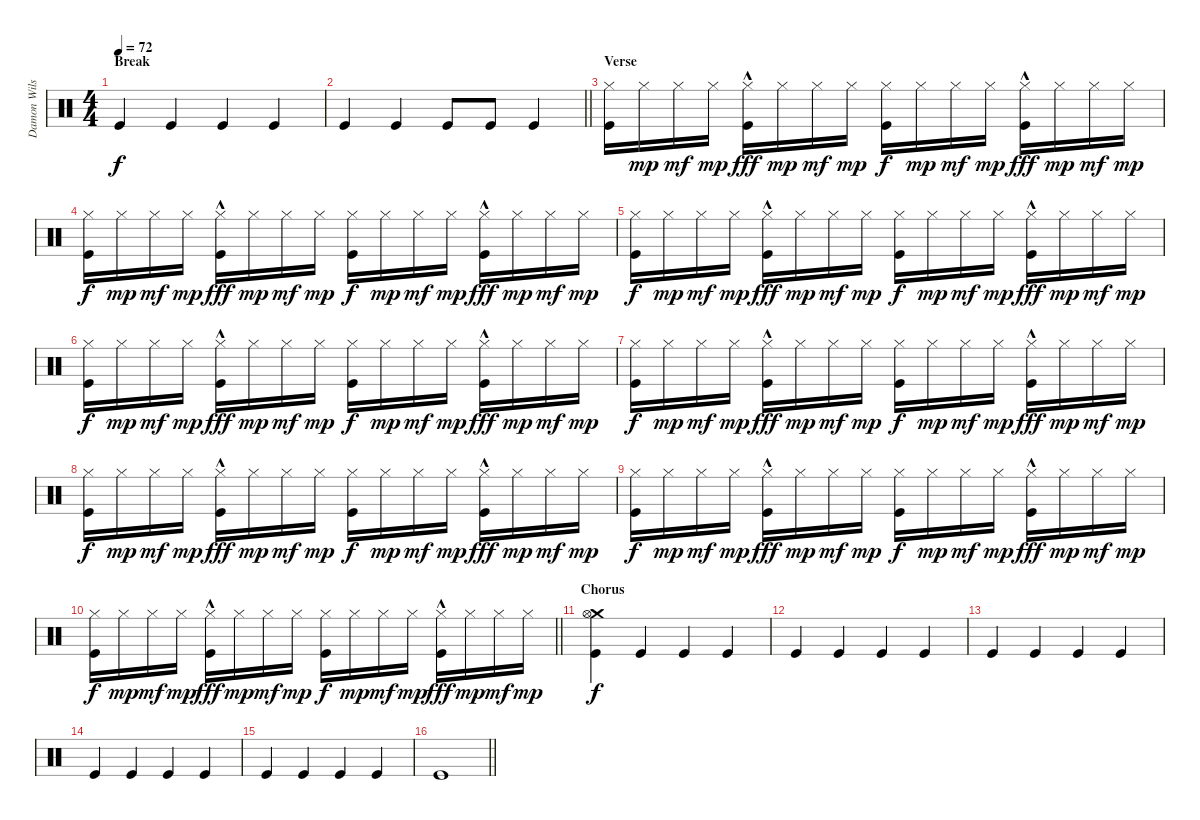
\track ("Damon Wilson" "Damon Wils") {instrument percussion}
\staff {score}
\articulation defaults
\ts (4 4)
\section ("" "Break")
\tempo 72
\clef neutral
\ks c "Kick (hit)".4{dy f} "Kick (hit)".4 "Kick (hit)".4 "Kick (hit)".4
|
\barLineRight lightlight "Kick (hit)".4 "Kick (hit)".4 "Kick (hit)".8 "Kick (hit)".8 "Kick (hit)".4
|
\section ("" "Verse")
("Hi-Hat (closed)" "Kick (hit)").16 "Hi-Hat (closed)".16{dy mp} "Hi-Hat (closed)".16{dy mf} "Hi-Hat (closed)".16{dy mp} ("Hi-Hat (closed)"{hac} "Kick (hit)").16{dy fff} "Hi-Hat (closed)".16{dy mp} "Hi-Hat (closed)".16{dy mf} "Hi-Hat (closed)".16{dy mp} ("Hi-Hat (closed)" "Kick (hit)").16{dy f} "Hi-Hat (closed)".16{dy mp} "Hi-Hat (closed)".16{dy mf} "Hi-Hat (closed)".16{dy mp} ("Hi-Hat (closed)"{hac} "Kick (hit)").16{dy fff} "Hi-Hat (closed)".16{dy mp} "Hi-Hat (closed)".16{dy mf} "Hi-Hat (closed)".16{dy mp} |
("Hi-Hat (closed)" "Kick (hit)").16{dy f} "Hi-Hat (closed)".16{dy mp} "Hi-Hat (closed)".16{dy mf} "Hi-Hat (closed)".16{dy mp} ("Hi-Hat (closed)"{hac} "Kick (hit)").16{dy fff} "Hi-Hat (closed)".16{dy mp} "Hi-Hat (closed)".16{dy mf} "Hi-Hat (closed)".16{dy mp} ("Hi-Hat (closed)" "Kick (hit)").16{dy f} "Hi-Hat (closed)".16{dy mp} "Hi-Hat (closed)".16{dy mf} "Hi-Hat (closed)".16{dy mp} ("Hi-Hat (closed)"{hac} "Kick (hit)").16{dy fff} "Hi-Hat (closed)".16{dy mp} "Hi-Hat (closed)".16{dy mf} "Hi-Hat (closed)".16{dy mp} |
("Hi-Hat (closed)" "Kick (hit)").16{dy f} "Hi-Hat (closed)".16{dy mp} "Hi-Hat (closed)".16{dy mf} "Hi-Hat (closed)".16{dy mp} ("Hi-Hat (closed)"{hac} "Kick (hit)").16{dy fff} "Hi-Hat (closed)".16{dy mp} "Hi-Hat (closed)".16{dy mf} "Hi-Hat (closed)".16{dy mp} ("Hi-Hat (closed)" "Kick (hit)").16{dy f} "Hi-Hat (closed)".16{dy mp} "Hi-Hat (closed)".16{dy mf} "Hi-Hat (closed)".16{dy mp} ("Hi-Hat (closed)"{hac} "Kick (hit)").16{dy fff} "Hi-Hat (closed)".16{dy mp} "Hi-Hat (closed)".16{dy mf} "Hi-Hat (closed)".16{dy mp} |
("Hi-Hat (closed)" "Kick (hit)").16{dy f} "Hi-Hat (closed)".16{dy mp} "Hi-Hat (closed)".16{dy mf} "Hi-Hat (closed)".16{dy mp} ("Hi-Hat (closed)"{hac} "Kick (hit)").16{dy fff} "Hi-Hat (closed)".16{dy mp} "Hi-Hat (closed)".16{dy mf} "Hi-Hat (closed)".16{dy mp} ("Hi-Hat (closed)" "Kick (hit)").16{dy f} "Hi-Hat (closed)".16{dy mp} "Hi-Hat (closed)".16{dy mf} "Hi-Hat (closed)".16{dy mp} ("Hi-Hat (closed)"{hac} "Kick (hit)").16{dy fff} "Hi-Hat (closed)".16{dy mp} "Hi-Hat (closed)".16{dy mf} "Hi-Hat (closed)".16{dy mp} |
("Hi-Hat (closed)" "Kick (hit)").16{dy f} "Hi-Hat (closed)".16{dy mp} "Hi-Hat (closed)".16{dy mf} "Hi-Hat (closed)".16{dy mp} ("Hi-Hat (closed)"{hac} "Kick (hit)").16{dy fff} "Hi-Hat (closed)".16{dy mp} "Hi-Hat (closed)".16{dy mf} "Hi-Hat (closed)".16{dy mp} ("Hi-Hat (closed)" "Kick (hit)").16{dy f} "Hi-Hat (closed)".16{dy mp} "Hi-Hat (closed)".16{dy mf} "Hi-Hat (closed)".16{dy mp} ("Hi-Hat (closed)"{hac} "Kick (hit)").16{dy fff} "Hi-Hat (closed)".16{dy mp} "Hi-Hat (closed)".16{dy mf} "Hi-Hat (closed)".16{dy mp} |
("Hi-Hat (closed)" "Kick (hit)").16{dy f} "Hi-Hat (closed)".16{dy mp} "Hi-Hat (closed)".16{dy mf} "Hi-Hat (closed)".16{dy mp} ("Hi-Hat (closed)"{hac} "Kick (hit)").16{dy fff} "Hi-Hat (closed)".16{dy mp} "Hi-Hat (closed)".16{dy mf} "Hi-Hat (closed)".16{dy mp} ("Hi-Hat (closed)" "Kick (hit)").16{dy f} "Hi-Hat (closed)".16{dy mp} "Hi-Hat (closed)".16{dy mf} "Hi-Hat (closed)".16{dy mp} ("Hi-Hat (closed)"{hac} "Kick (hit)").16{dy fff} "Hi-Hat (closed)".16{dy mp} "Hi-Hat (closed)".16{dy mf} "Hi-Hat (closed)".16{dy mp} |
("Hi-Hat (closed)" "Kick (hit)").16{dy f} "Hi-Hat (closed)".16{dy mp} "Hi-Hat (closed)".16{dy mf} "Hi-Hat (closed)".16{dy mp} ("Hi-Hat (closed)"{hac} "Kick (hit)").16{dy fff} "Hi-Hat (closed)".16{dy mp} "Hi-Hat (closed)".16{dy mf} "Hi-Hat (closed)".16{dy mp} ("Hi-Hat (closed)" "Kick (hit)").16{dy f} "Hi-Hat (closed)".16{dy mp} "Hi-Hat (closed)".16{dy mf} "Hi-Hat (closed)".16{dy mp} ("Hi-Hat (closed)"{hac} "Kick (hit)").16{dy fff} "Hi-Hat (closed)".16{dy mp} "Hi-Hat (closed)".16{dy mf} "Hi-Hat (closed)".16{dy mp} |
\barLineRight lightlight
("Hi-Hat (closed)" "Kick (hit)").16{dy f} "Hi-Hat (closed)".16{dy mp} "Hi-Hat (closed)".16{dy mf} "Hi-Hat (closed)".16{dy mp} ("Hi-Hat (closed)"{hac} "Kick (hit)").16{dy fff} "Hi-Hat (closed)".16{dy mp} "Hi-Hat (closed)".16{dy mf} "Hi-Hat (closed)".16{dy mp} ("Hi-Hat (closed)" "Kick (hit)").16{dy f} "Hi-Hat (closed)".16{dy mp} "Hi-Hat (closed)".16{dy mf} "Hi-Hat (closed)".16{dy mp} ("Hi-Hat (closed)"{hac} "Kick (hit)").16{dy fff} "Hi-Hat (closed)".16{dy mp} "Hi-Hat (closed)".16{dy mf} "Hi-Hat (closed)".16{dy mp} |
\section ("" "Chorus")
("Crash medium (hit)" "Hi-Hat (open)" "Kick (hit)").4{dy f} "Kick (hit)".4 "Kick (hit)".4 "Kick (hit)".4 |
"Kick (hit)".4 "Kick (hit)".4 "Kick (hit)".4 "Kick (hit)".4 |
"Kick (hit)".4 "Kick (hit)".4 "Kick (hit)".4 "Kick (hit)".4 |
"Kick (hit)".4 "Kick (hit)".4 "Kick (hit)".4 "Kick (hit)".4 |
"Kick (hit)".4 "Kick (hit)".4 "Kick (hit)".4 "Kick (hit)".4 |
\barLineRight lightlight "Kick (hit)".1
